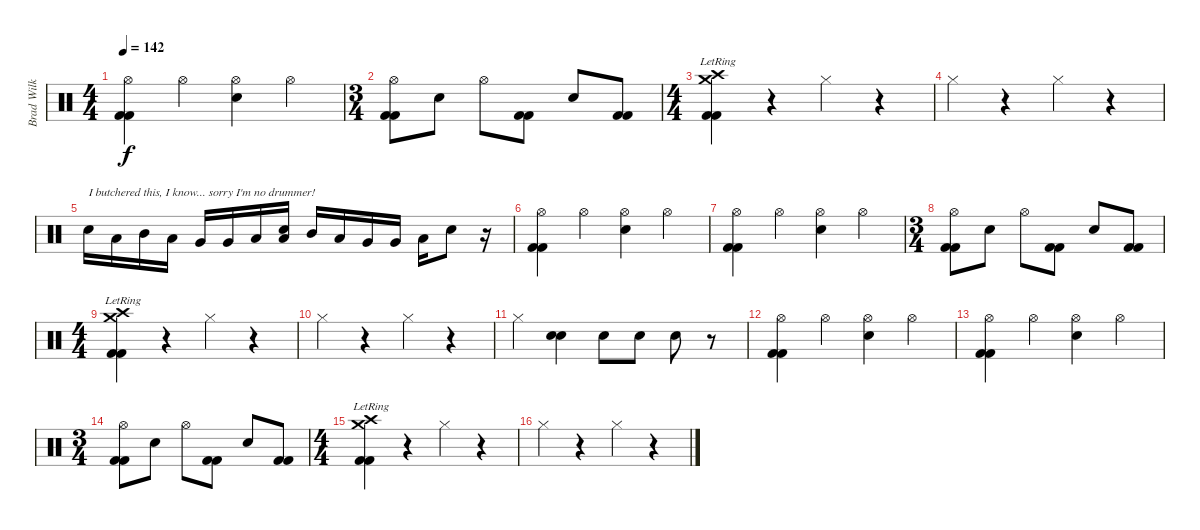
\track ("Brad Wilk" "Brad Wilk") {instrument percussion}
\staff {score}
\articulation defaults
\ts (4 4)
\tempo 142
\clef neutral
\ks c
("Hi-Hat (open)" "Kick (hit) 2" "Kick (hit) 2").4{dy f} "Hi-Hat (open)".4 ("Hi-Hat (open)" "Electric Snare (hit)").4 "Hi-Hat (open)".4 |
\ts (3 4)
("Hi-Hat (open)" "Kick (hit) 2" "Kick (hit) 2").8 "Electric Snare (hit)".8 "Hi-Hat (open)".8 ("Kick (hit) 2" "Kick (hit) 2").8 "Electric Snare (hit)".8 ("Kick (hit) 2" "Kick (hit) 2").8 |
\ts (4 4)
("Crash medium (hit)"{lr} "Crash high (hit)"{lr} "Kick (hit) 2" "Kick (hit) 2").4 r.4 "Hi-Hat (closed)".4 r.4 |
"Hi-Hat (closed)".4 r.4 "Hi-Hat (closed)".4 r.4 |
"Electric Snare (hit)".16{txt "I butchered this, I know... sorry I'm no drummer!"} "Low Tom (hit)".16 "Mid Tom (hit)".16 "Low Tom (hit)".16 "Very Low Tom (hit)".16 "Very Low Tom (hit)".16 "Low Floor Tom (hit)".16 ("Electric Snare (hit)" "Low Tom (hit)").16{bd 240} "Mid Tom (hit)".16 "Low Tom (hit)".16 "Very Low Tom (hit)".16 "Very Low Tom (hit)".16 "Low Floor Tom (hit)".16 "Electric Snare (hit)".8 r.16 |
("Hi-Hat (open)" "Kick (hit) 2" "Kick (hit) 2").4 "Hi-Hat (open)".4 ("Hi-Hat (open)" "Electric Snare (hit)").4 "Hi-Hat (open)".4 |
("Hi-Hat (open)" "Kick (hit) 2" "Kick (hit) 2").4 "Hi-Hat (open)".4 ("Hi-Hat (open)" "Electric Snare (hit)").4 "Hi-Hat (open)".4 |
\ts (3 4)
("Hi-Hat (open)" "Kick (hit) 2" "Kick (hit) 2").8 "Electric Snare (hit)".8 "Hi-Hat (open)".8 ("Kick (hit) 2" "Kick (hit) 2").8 "Electric Snare (hit)".8 ("Kick (hit) 2" "Kick (hit) 2").8 |
\ts (4 4)
("Crash medium (hit)"{lr} "Crash high (hit)"{lr} "Kick (hit) 2" "Kick (hit) 2").4 r.4 "Hi-Hat (closed)".4 r.4 |
"Hi-Hat (closed)".4 r.4 "Hi-Hat (closed)".4 r.4 |
"Hi-Hat (closed)".4 ("Electric Snare (hit)" "Electric Snare (hit)").4{bd 240} "Electric Snare (hit)".8 "Electric Snare (hit)".8 "Electric Snare (hit)".8 r.8 |
("Hi-Hat (open)" "Kick (hit) 2" "Kick (hit) 2").4 "Hi-Hat (open)".4 ("Hi-Hat (open)" "Electric Snare (hit)").4 "Hi-Hat (open)".4 |
("Hi-Hat (open)" "Kick (hit) 2" "Kick (hit) 2").4 "Hi-Hat (open)".4 ("Hi-Hat (open)" "Electric Snare (hit)").4 "Hi-Hat (open)".4 |
\ts (3 4)
("Hi-Hat (open)" "Kick (hit) 2" "Kick (hit) 2").8 "Electric Snare (hit)".8 "Hi-Hat (open)".8 ("Kick (hit) 2" "Kick (hit) 2").8 "Electric Snare (hit)".8 ("Kick (hit) 2" "Kick (hit) 2").8 |
\ts (4 4)
("Crash medium (hit)"{lr} "Crash high (hit)"{lr} "Kick (hit) 2" "Kick (hit) 2").4 r.4 "Hi-Hat (closed)".4 r.4 |
"Hi-Hat (closed)".4 r.4 "Hi-Hat (closed)".4 r.4
